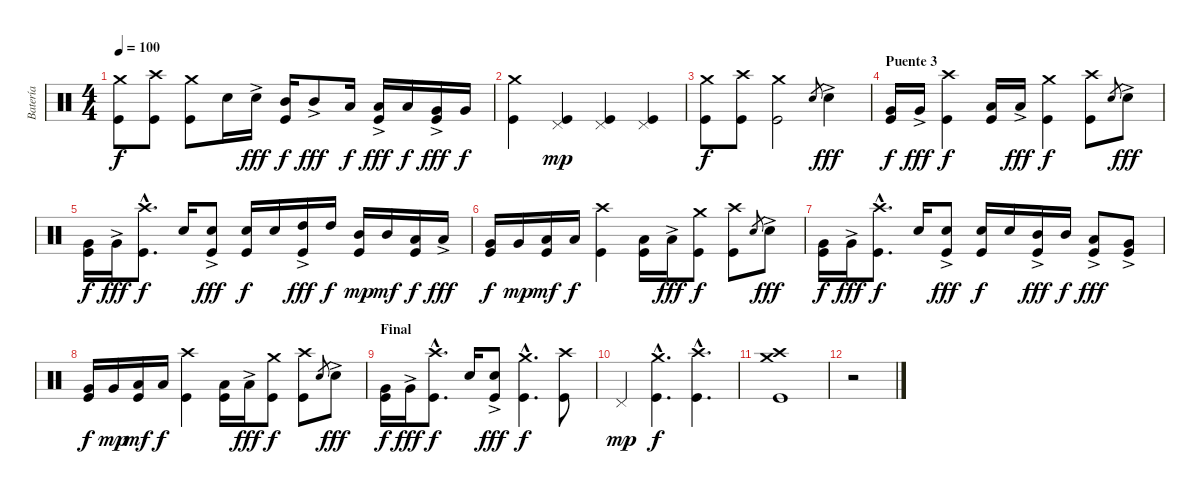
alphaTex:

\track ("Batería" "Batería") {instrument percussion}
\staff {score}
\articulation defaults
\ts (4 4)
\tempo 100
\clef neutral
\ks c
("Kick (hit)" "Crash medium (hit)").8{dy f} ("Kick (hit)" "Crash high (hit)").8 ("Kick (hit)" "Crash medium (hit)").8 "Electric Snare (hit)".16 "Electric Snare (hit)"{ac}.16{dy fff} ("Kick (hit)" "Mid Tom (hit)").16{dy f} "Mid Tom (hit)"{ac}.8{dy fff} "Low Tom (hit)".16{dy f} ("Kick (hit)" "Low Tom (hit)"{ac}).16{dy fff} "Low Tom (hit)".16{dy f} ("Kick (hit)" "Very Low Tom (hit)"{ac}).16{dy fff} "Very Low Tom (hit)".16{dy f} |
("Kick (hit)" "Crash medium (hit)").4 ("Kick (hit)" "Pedal Hi-Hat (hit)").4{dy mp} ("Kick (hit)" "Pedal Hi-Hat (hit)").4 ("Kick (hit)" "Pedal Hi-Hat (hit)").4 |
("Kick (hit)" "Crash medium (hit)").8{dy f} ("Kick (hit)" "Crash high (hit)").8 ("Kick (hit)" "Crash medium (hit)").2 "Electric Snare (hit)".8{gr} "Electric Snare (hit)"{ac}.4{dy fff} |
\section ("" "Puente 3")
("Kick (hit)" "Very Low Tom (hit)").16{dy f} "Very Low Tom (hit)"{ac}.16{dy fff} ("Kick (hit)" "Crash high (hit)").4{dy f} ("Kick (hit)" "Low Tom (hit)").16 "Low Tom (hit)"{ac}.16{dy fff} ("Kick (hit)" "Crash medium (hit)").4{dy f} ("Kick (hit)" "Crash high (hit)").8 "Electric Snare (hit)".8{gr} "Electric Snare (hit)"{ac}.8{dy fff} |
("Kick (hit)" "Very Low Tom (hit)").16{dy f} "Very Low Tom (hit)"{ac}.16{dy fff} ("Kick (hit)"{hac} "Crash high (hit)"{hac}).8{d dy f} "Electric Snare (hit)".16 ("Kick (hit)" "Electric Snare (hit)"{ac}).8{dy fff} ("Kick (hit)" "Electric Snare (hit)").16{dy f} "Electric Snare (hit)".16 ("Kick (hit)" "High Tom (hit)"{ac}).16{dy fff} "High Tom (hit)".16{dy f} ("Kick (hit)" "Mid Tom (hit)").16{dy mp} "Mid Tom (hit)".16{dy mf} ("Kick (hit)" "Low Tom (hit)").16{dy f} "Low Tom (hit)"{ac}.16{dy fff} |
("Kick (hit)" "Very Low Tom (hit)").16{dy f} "Very Low Tom (hit)".16{dy mp} ("Kick (hit)" "Low Floor Tom (hit)").16{dy mf} "Low Floor Tom (hit)".16{dy f} ("Kick (hit)" "Crash high (hit)").4 ("Kick (hit)" "Low Tom (hit)").16 "Low Tom (hit)"{ac}.16{dy fff} ("Kick (hit)" "Crash medium (hit)").8{dy f} ("Kick (hit)" "Crash high (hit)").8 "Electric Snare (hit)".8{gr} "Electric Snare (hit)"{ac}.8{dy fff} |
("Kick (hit)" "Very Low Tom (hit)").16{dy f} "Very Low Tom (hit)"{ac}.16{dy fff} ("Kick (hit)"{hac} "Crash high (hit)"{hac}).8{d dy f} "Electric Snare (hit)".16 ("Kick (hit)" "Electric Snare (hit)"{ac}).8{dy fff} ("Kick (hit)" "Electric Snare (hit)").16{dy f} "Electric Snare (hit)".16 ("Kick (hit)" "Mid Tom (hit)"{ac}).16{dy fff} "Mid Tom (hit)".16{dy f} ("Kick (hit)" "Low Tom (hit)"{ac}).8{dy fff} ("Kick (hit)" "Very Low Tom (hit)"{ac}).8 |
("Kick (hit)" "Very Low Tom (hit)").16{dy f} "Very Low Tom (hit)".16{dy mp} ("Kick (hit)" "Low Floor Tom (hit)").16{dy mf} "Low Floor Tom (hit)".16{dy f} ("Kick (hit)" "Crash high (hit)").4 ("Kick (hit)" "Low Tom (hit)").16 "Low Tom (hit)"{ac}.16{dy fff} ("Kick (hit)" "Crash medium (hit)").8{dy f} ("Kick (hit)" "Crash high (hit)").8 "Electric Snare (hit)".8{gr} "Electric Snare (hit)"{ac}.8{dy fff} |
\section ("" "Final")
("Kick (hit)" "Very Low Tom (hit)").16{dy f} "Very Low Tom (hit)"{ac}.16{dy fff} ("Kick (hit)"{hac} "Crash high (hit)"{hac}).8{d dy f} "Electric Snare (hit)".16 ("Kick (hit)" "Electric Snare (hit)"{ac}).8{dy fff} ("Kick (hit)"{hac} "Crash medium (hit)"{hac}).4{d dy f} ("Kick (hit)" "Crash high (hit)").8 |
"Pedal Hi-Hat (hit)".4{dy mp} ("Kick (hit)"{hac} "Crash medium (hit)"{hac}).4{d dy f} ("Kick (hit)"{hac} "Crash high (hit)"{hac}).4{d} |
("Kick (hit)" "Crash medium (hit)" "Crash high (hit)").1 |
r.2
